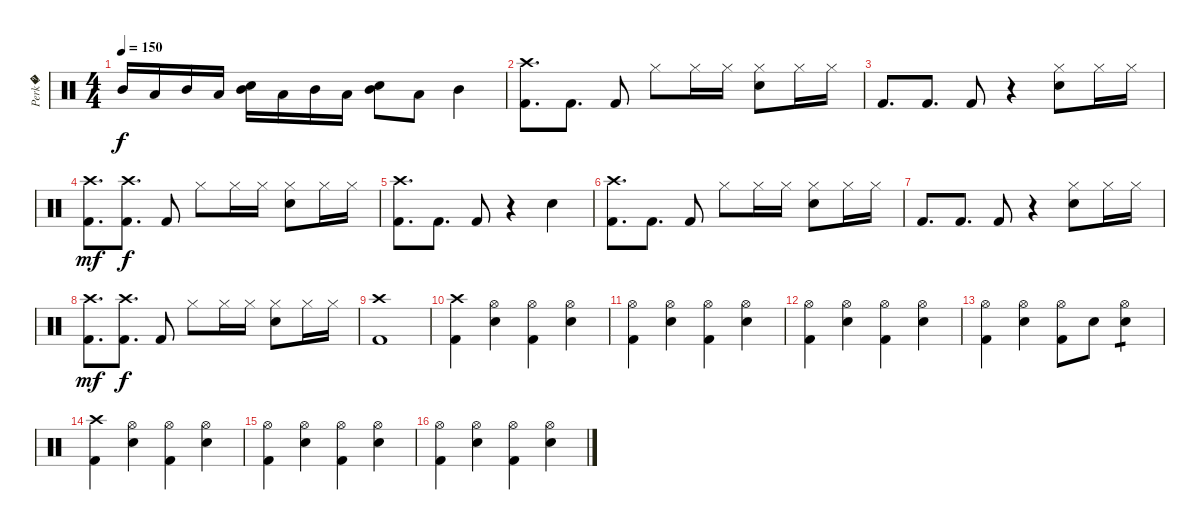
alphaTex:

\track ("Perk�" "Perk�") {instrument percussion}
\staff {score}
\articulation defaults
\ts (4 4)
\tempo 150
\clef neutral
\ks c "Mid Tom (hit)".16{dy f} "Low Tom (hit)".16 "Mid Tom (hit)".16 "Low Tom (hit)".16
("Mid Tom (hit)" "Snare (hit) 2").16 "Low Tom (hit)".16 "Mid Tom (hit)".16 "Low Tom (hit)".16 ("Mid Tom (hit)" "Snare (hit) 2").8 "Low Tom (hit)".8 "Mid Tom (hit)".4 |
("Kick (hit) 2" "Crash high (hit)").8{d} "Kick (hit) 2".8{d} "Kick (hit) 2".8 "Hi-Hat (closed)".8 "Hi-Hat (closed)".16 "Hi-Hat (closed)".16 ("Snare (hit) 2" "Hi-Hat (closed)").8 "Hi-Hat (closed)".16 "Hi-Hat (closed)".16 |
"Kick (hit) 2".8{d} "Kick (hit) 2".8{d} "Kick (hit) 2".8 r.4 ("Snare (hit) 2" "Hi-Hat (closed)").8 "Hi-Hat (closed)".16 "Hi-Hat (closed)".16 |
("Kick (hit) 2" "Crash high (hit)").8{d dy mf} ("Crash high (hit)" "Kick (hit) 2").8{d dy f} "Kick (hit) 2".8 "Hi-Hat (closed)".8 "Hi-Hat (closed)".16 "Hi-Hat (closed)".16 ("Snare (hit) 2" "Hi-Hat (closed)").8 "Hi-Hat (closed)".16 "Hi-Hat (closed)".16 |
("Kick (hit) 2" "Crash high (hit)").8{d} "Kick (hit) 2".8{d} "Kick (hit) 2".8 r.4 "Snare (hit) 2".4 |
("Kick (hit) 2" "Crash high (hit)").8{d} "Kick (hit) 2".8{d} "Kick (hit) 2".8 "Hi-Hat (closed)".8 "Hi-Hat (closed)".16 "Hi-Hat (closed)".16 ("Snare (hit) 2" "Hi-Hat (closed)").8 "Hi-Hat (closed)".16 "Hi-Hat (closed)".16 |
"Kick (hit) 2".8{d} "Kick (hit) 2".8{d} "Kick (hit) 2".8 r.4 ("Snare (hit) 2" "Hi-Hat (closed)").8 "Hi-Hat (closed)".16 "Hi-Hat (closed)".16 |
("Kick (hit) 2" "Crash high (hit)").8{d dy mf} ("Crash high (hit)" "Kick (hit) 2").8{d dy f} "Kick (hit) 2".8 "Hi-Hat (closed)".8 "Hi-Hat (closed)".16 "Hi-Hat (closed)".16 ("Snare (hit) 2" "Hi-Hat (closed)").8 "Hi-Hat (closed)".16 "Hi-Hat (closed)".16 |
("Kick (hit) 2" "Crash high (hit)").1 |
("Crash high (hit)" "Kick (hit) 2").4 ("Hi-Hat (open)" "Snare (hit) 2").4 ("Hi-Hat (open)" "Kick (hit) 2").4 ("Hi-Hat (open)" "Snare (hit) 2").4 |
("Hi-Hat (open)" "Kick (hit) 2").4 ("Hi-Hat (open)" "Snare (hit) 2").4 ("Hi-Hat (open)" "Kick (hit) 2").4 ("Hi-Hat (open)" "Snare (hit) 2").4 |
("Hi-Hat (open)" "Kick (hit) 2").4 ("Hi-Hat (open)" "Snare (hit) 2").4 ("Hi-Hat (open)" "Kick (hit) 2").4 ("Hi-Hat (open)" "Snare (hit) 2").4 |
("Hi-Hat (open)" "Kick (hit) 2").4 ("Hi-Hat (open)" "Snare (hit) 2").4 ("Hi-Hat (open)" "Kick (hit) 2").8 "Snare (hit) 2".8 ("Hi-Hat (open)" "Snare (hit) 2").4{tp 1} |
("Crash high (hit)" "Kick (hit) 2").4 ("Hi-Hat (open)" "Snare (hit) 2").4 ("Hi-Hat (open)" "Kick (hit) 2").4 ("Hi-Hat (open)" "Snare (hit) 2").4 |
("Hi-Hat (open)" "Kick (hit) 2").4 ("Hi-Hat (open)" "Snare (hit) 2").4 ("Hi-Hat (open)" "Kick (hit) 2").4 ("Hi-Hat (open)" "Snare (hit) 2").4 |
("Hi-Hat (open)" "Kick (hit) 2").4 ("Hi-Hat (open)" "Snare (hit) 2").4 ("Hi-Hat (open)" "Kick (hit) 2").4 ("Hi-Hat (open)" "Snare (hit) 2").4
